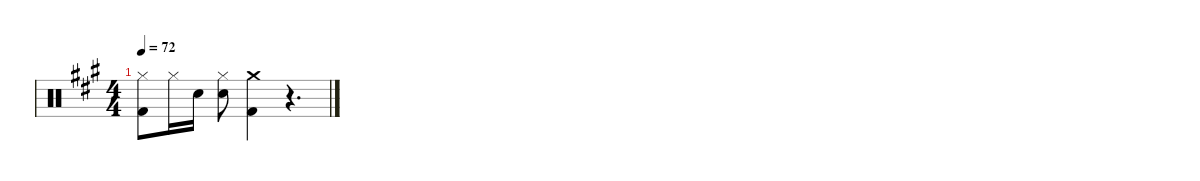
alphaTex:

\hideDynamics
\bracketExtendMode nobrackets
\singleTrackTrackNamePolicy hidden
\multiTrackTrackNamePolicy hidden
\otherSystemsTrackNameOrientation horizontal
\track ("Drumkit" "Drums") {defaultSystemsLayout 4 instrument percussion}
\staff {score}
\articulation defaults
\ts (4 4)
\tempo 72
\clef neutral
\ks a
("Hi-Hat (closed)"{acc forcenatural} "Kick (hit) 2"{acc forcenatural}).8{dy mf beam Down} "Hi-Hat (closed)"{acc forcenatural}.16{beam Down} "Snare (hit) 2"{acc forcenatural}.16{beam Down} ("Hi-Hat (closed)"{acc forcenatural} "Snare (hit) 2"{acc forcenatural}).8{beam Down} ("Crash medium (hit)"{acc forcenatural} "Kick (hit) 2"{acc forcenatural}).4{beam Down} r.4{d beam Down}
